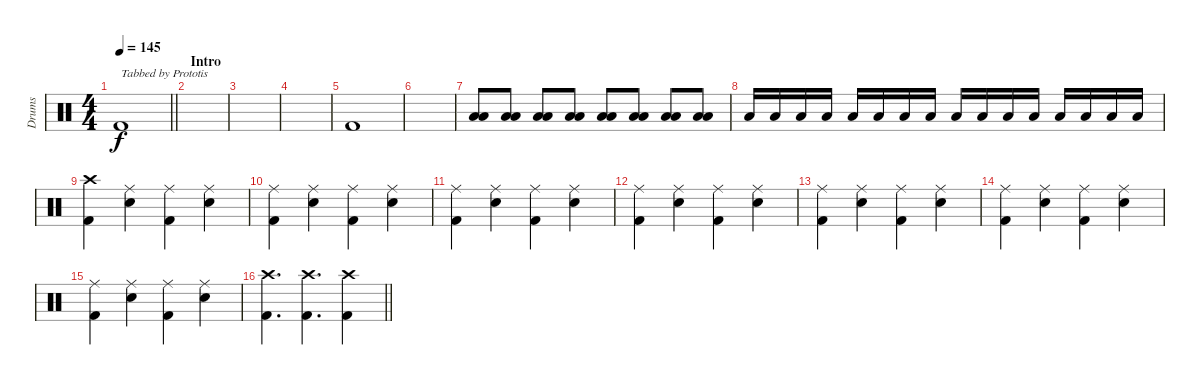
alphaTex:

\track ("Drums" "Drums") {instrument percussion}
\staff {score}
\articulation defaults
\ts (4 4)
\tempo 145
\clef neutral
\barLineRight lightlight
\ks c "Kick (hit) 2".1{txt "Tabbed by Prototis" dy f}
|
\section ("" "Intro")
|
|
|
"Kick (hit) 2".1 |
|
("Low Tom (hit)" "Low Tom (hit)").8 ("Low Tom (hit)" "Low Tom (hit)").8 ("Low Tom (hit)" "Low Tom (hit)").8 ("Low Tom (hit)" "Low Tom (hit)").8 ("Low Tom (hit)" "Low Tom (hit)").8 ("Low Tom (hit)" "Low Tom (hit)").8 ("Low Tom (hit)" "Low Tom (hit)").8 ("Low Tom (hit)" "Low Tom (hit)").8 |
"Low Tom (hit)".16 "Low Tom (hit)".16 "Low Tom (hit)".16 "Low Tom (hit)".16 "Low Tom (hit)".16 "Low Tom (hit)".16 "Low Tom (hit)".16 "Low Tom (hit)".16 "Low Tom (hit)".16 "Low Tom (hit)".16 "Low Tom (hit)".16 "Low Tom (hit)".16 "Low Tom (hit)".16 "Low Tom (hit)".16 "Low Tom (hit)".16 "Low Tom (hit)".16 |
("Crash high (hit)" "Kick (hit) 2").4 ("Ride (middle)" "Electric Snare (hit)").4 ("Ride (middle)" "Kick (hit) 2").4 ("Ride (middle)" "Electric Snare (hit)").4 |
("Ride (middle)" "Kick (hit) 2").4 ("Ride (middle)" "Electric Snare (hit)").4 ("Ride (middle)" "Kick (hit) 2").4 ("Ride (middle)" "Electric Snare (hit)").4 |
("Ride (middle)" "Kick (hit) 2").4 ("Ride (middle)" "Electric Snare (hit)").4 ("Ride (middle)" "Kick (hit) 2").4 ("Ride (middle)" "Electric Snare (hit)").4 |
("Ride (middle)" "Kick (hit) 2").4 ("Ride (middle)" "Electric Snare (hit)").4 ("Ride (middle)" "Kick (hit) 2").4 ("Ride (middle)" "Electric Snare (hit)").4 |
("Ride (middle)" "Kick (hit) 2").4 ("Ride (middle)" "Electric Snare (hit)").4 ("Ride (middle)" "Kick (hit) 2").4 ("Ride (middle)" "Electric Snare (hit)").4 |
("Ride (middle)" "Kick (hit) 2").4 ("Ride (middle)" "Electric Snare (hit)").4 ("Ride (middle)" "Kick (hit) 2").4 ("Ride (middle)" "Electric Snare (hit)").4 |
("Ride (middle)" "Kick (hit) 2").4 ("Ride (middle)" "Electric Snare (hit)").4 ("Ride (middle)" "Kick (hit) 2").4 ("Ride (middle)" "Electric Snare (hit)").4 |
\barLineRight lightlight
("Crash high (hit)" "Kick (hit) 2").4{d} ("Crash high (hit)" "Kick (hit) 2").4{d} ("Crash high (hit)" "Kick (hit) 2").4
